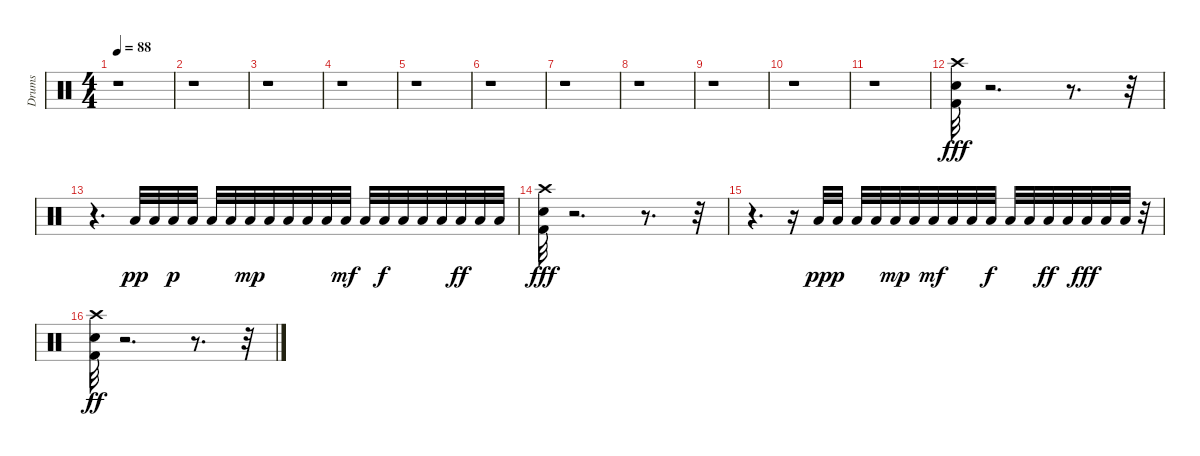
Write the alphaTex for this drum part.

\track ("Drums" "Drums") {instrument percussion}
\staff {score}
\articulation defaults
\ts (4 4)
\tempo 88
\clef neutral
\ks c
r.1{dy f} |
r.1 |
r.1 |
r.1 |
r.1 |
r.1 |
r.1 |
r.1 |
r.1 |
r.1 |
r.1 |
("Crash high (hit)" "Kick (hit) 2" "Snare (hit) 2").32{dy fff} r.2{d} r.8{d} r.32 |
r.4{d} "Low Floor Tom (hit)".32{dy pp} "Low Floor Tom (hit)".32 "Low Floor Tom (hit)".32{dy p} "Low Floor Tom (hit)".32 "Low Floor Tom (hit)".32 "Low Floor Tom (hit)".32 "Low Floor Tom (hit)".32{dy mp} "Low Floor Tom (hit)".32 "Low Floor Tom (hit)".32 "Low Floor Tom (hit)".32 "Low Floor Tom (hit)".32 "Low Floor Tom (hit)".32{dy mf} "Low Floor Tom (hit)".32 "Low Floor Tom (hit)".32{dy f} "Low Floor Tom (hit)".32 "Low Floor Tom (hit)".32 "Low Floor Tom (hit)".32 "Low Floor Tom (hit)".32{dy ff} "Low Floor Tom (hit)".32 "Low Floor Tom (hit)".32 |
("Kick (hit) 2" "Snare (hit) 2" "Crash high (hit)").32{dy fff} r.2{d} r.8{d} r.32 |
r.4{d} r.16 "Low Floor Tom (hit)".32{dy pp} "Low Floor Tom (hit)".32{dy p} "Low Floor Tom (hit)".32 "Low Floor Tom (hit)".32 "Low Floor Tom (hit)".32{dy mp} "Low Floor Tom (hit)".32 "Low Floor Tom (hit)".32{dy mf} "Low Floor Tom (hit)".32 "Low Floor Tom (hit)".32 "Low Floor Tom (hit)".32{dy f} "Low Floor Tom (hit)".32 "Low Floor Tom (hit)".32 "Low Floor Tom (hit)".32{dy ff} "Low Floor Tom (hit)".32 "Low Floor Tom (hit)".32{dy fff} "Low Floor Tom (hit)".32 "Low Floor Tom (hit)".32 r.32 |
("Snare (hit) 2" "Kick (hit) 2" "Crash high (hit)").32{dy ff} r.2{d} r.8{d} r.32
